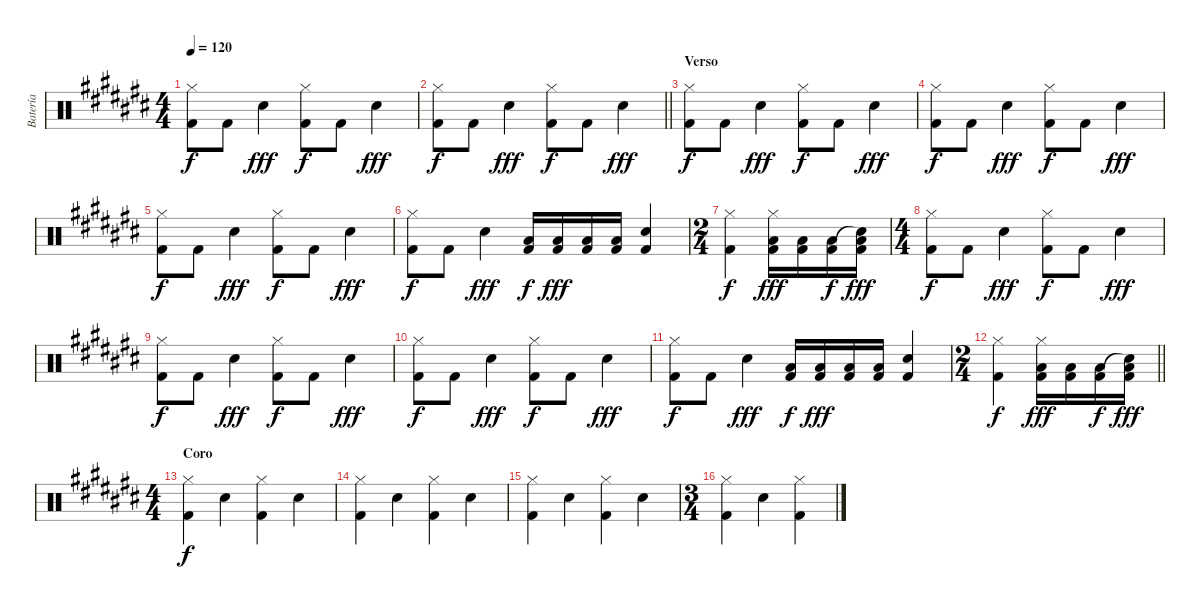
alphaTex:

\track ("Batería" "Batería") {instrument percussion}
\staff {score}
\articulation defaults
\ts (4 4)
\tempo 120
\clef neutral
\ks c#
("Hi-Hat (closed)" "Kick (hit) 2").8{dy f} "Kick (hit) 2".8 "Snare (hit) 2".4{dy fff} ("Hi-Hat (closed)" "Kick (hit) 2").8{dy f} "Kick (hit) 2".8 "Snare (hit) 2".4{dy fff} |
\barLineRight lightlight
("Hi-Hat (closed)" "Kick (hit) 2").8{dy f} "Kick (hit) 2".8 "Snare (hit) 2".4{dy fff} ("Hi-Hat (closed)" "Kick (hit) 2").8{dy f} "Kick (hit) 2".8 "Snare (hit) 2".4{dy fff} |
\section ("" "Verso")
("Hi-Hat (closed)" "Kick (hit) 2").8{dy f} "Kick (hit) 2".8 "Snare (hit) 2".4{dy fff} ("Hi-Hat (closed)" "Kick (hit) 2").8{dy f} "Kick (hit) 2".8 "Snare (hit) 2".4{dy fff} |
("Hi-Hat (closed)" "Kick (hit) 2").8{dy f} "Kick (hit) 2".8 "Snare (hit) 2".4{dy fff} ("Hi-Hat (closed)" "Kick (hit) 2").8{dy f} "Kick (hit) 2".8 "Snare (hit) 2".4{dy fff} |
("Hi-Hat (closed)" "Kick (hit) 2").8{dy f} "Kick (hit) 2".8 "Snare (hit) 2".4{dy fff} ("Hi-Hat (closed)" "Kick (hit) 2").8{dy f} "Kick (hit) 2".8 "Snare (hit) 2".4{dy fff} |
("Hi-Hat (closed)" "Kick (hit) 2").8{dy f} "Kick (hit) 2".8 "Snare (hit) 2".4{dy fff} ("Low Tom (hit)" "Kick (hit) 2").16{dy f} ("Low Tom (hit)" "Kick (hit) 2").16{dy fff} ("Low Tom (hit)" "Kick (hit) 2").16 ("Low Tom (hit)" "Kick (hit) 2").16 ("Snare (hit) 2" "Kick (hit) 2").4 |
\ts (2 4)
("Hi-Hat (closed)" "Kick (hit) 2").4{dy f} ("Low Tom (hit)" "Hi-Hat (closed)" "Kick (hit) 2").16{dy fff} ("Low Tom (hit)" "Kick (hit) 2").16 ("Low Tom (hit)" "Kick (hit) 2").16{dy f} ("Low Tom (hit)" "Snare (hit)"{t} "Kick (hit) 2").16{dy fff} |
\ts (4 4)
("Hi-Hat (closed)" "Kick (hit) 2").8{dy f} "Kick (hit) 2".8 "Snare (hit) 2".4{dy fff} ("Hi-Hat (closed)" "Kick (hit) 2").8{dy f} "Kick (hit) 2".8 "Snare (hit) 2".4{dy fff} |
("Hi-Hat (closed)" "Kick (hit) 2").8{dy f} "Kick (hit) 2".8 "Snare (hit) 2".4{dy fff} ("Hi-Hat (closed)" "Kick (hit) 2").8{dy f} "Kick (hit) 2".8 "Snare (hit) 2".4{dy fff} |
("Hi-Hat (closed)" "Kick (hit) 2").8{dy f} "Kick (hit) 2".8 "Snare (hit) 2".4{dy fff} ("Hi-Hat (closed)" "Kick (hit) 2").8{dy f} "Kick (hit) 2".8 "Snare (hit) 2".4{dy fff} |
("Hi-Hat (closed)" "Kick (hit) 2").8{dy f} "Kick (hit) 2".8 "Snare (hit) 2".4{dy fff} ("Low Tom (hit)" "Kick (hit) 2").16{dy f} ("Low Tom (hit)" "Kick (hit) 2").16{dy fff} ("Low Tom (hit)" "Kick (hit) 2").16 ("Low Tom (hit)" "Kick (hit) 2").16 ("Snare (hit) 2" "Kick (hit) 2").4 |
\ts (2 4)
\barLineRight lightlight
("Hi-Hat (closed)" "Kick (hit) 2").4{dy f} ("Low Tom (hit)" "Hi-Hat (closed)" "Kick (hit) 2").16{dy fff} ("Low Tom (hit)" "Kick (hit) 2").16 ("Low Tom (hit)" "Kick (hit) 2").16{dy f} ("Low Tom (hit)" "Snare (hit)"{t} "Kick (hit) 2").16{dy fff} |
\ts (4 4)
\section ("" "Coro")
("Hi-Hat (closed)" "Kick (hit) 2").4{dy f} "Electric Snare (hit)".4 ("Hi-Hat (closed)" "Kick (hit) 2").4 "Electric Snare (hit)".4 |
("Hi-Hat (closed)" "Kick (hit) 2").4 "Electric Snare (hit)".4 ("Hi-Hat (closed)" "Kick (hit) 2").4 "Electric Snare (hit)".4 |
("Hi-Hat (closed)" "Kick (hit) 2").4 "Electric Snare (hit)".4 ("Hi-Hat (closed)" "Kick (hit) 2").4 "Electric Snare (hit)".4 |
\ts (3 4)
("Hi-Hat (closed)" "Kick (hit) 2").4 "Electric Snare (hit)".4 ("Hi-Hat (closed)" "Kick (hit) 2").4
